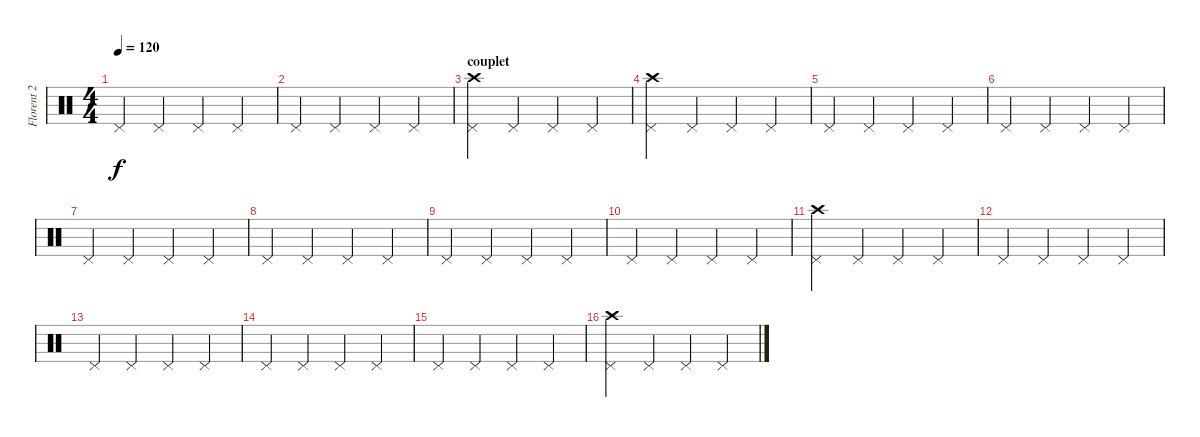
\track ("Florent 2" "Florent 2") {instrument percussion}
\staff {score}
\articulation defaults
\ts (4 4)
\tempo 120
\clef neutral
\ks c "Pedal Hi-Hat (hit)".4{dy f} "Pedal Hi-Hat (hit)".4 "Pedal Hi-Hat (hit)".4 "Pedal Hi-Hat (hit)".4
|
"Pedal Hi-Hat (hit)".4 "Pedal Hi-Hat (hit)".4 "Pedal Hi-Hat (hit)".4 "Pedal Hi-Hat (hit)".4 |
\section ("" "couplet")
("Pedal Hi-Hat (hit)" "Crash high (hit)").4 "Pedal Hi-Hat (hit)".4 "Pedal Hi-Hat (hit)".4 "Pedal Hi-Hat (hit)".4 |
("Pedal Hi-Hat (hit)" "Crash high (hit)").4 "Pedal Hi-Hat (hit)".4 "Pedal Hi-Hat (hit)".4 "Pedal Hi-Hat (hit)".4 |
"Pedal Hi-Hat (hit)".4 "Pedal Hi-Hat (hit)".4 "Pedal Hi-Hat (hit)".4 "Pedal Hi-Hat (hit)".4 |
"Pedal Hi-Hat (hit)".4 "Pedal Hi-Hat (hit)".4 "Pedal Hi-Hat (hit)".4 "Pedal Hi-Hat (hit)".4 |
"Pedal Hi-Hat (hit)".4 "Pedal Hi-Hat (hit)".4 "Pedal Hi-Hat (hit)".4 "Pedal Hi-Hat (hit)".4 |
"Pedal Hi-Hat (hit)".4 "Pedal Hi-Hat (hit)".4 "Pedal Hi-Hat (hit)".4 "Pedal Hi-Hat (hit)".4 |
"Pedal Hi-Hat (hit)".4 "Pedal Hi-Hat (hit)".4 "Pedal Hi-Hat (hit)".4 "Pedal Hi-Hat (hit)".4 |
"Pedal Hi-Hat (hit)".4 "Pedal Hi-Hat (hit)".4 "Pedal Hi-Hat (hit)".4 "Pedal Hi-Hat (hit)".4 |
\section ("" "")
("Pedal Hi-Hat (hit)" "Crash high (hit)").4 "Pedal Hi-Hat (hit)".4 "Pedal Hi-Hat (hit)".4 "Pedal Hi-Hat (hit)".4 |
"Pedal Hi-Hat (hit)".4 "Pedal Hi-Hat (hit)".4 "Pedal Hi-Hat (hit)".4 "Pedal Hi-Hat (hit)".4 |
"Pedal Hi-Hat (hit)".4 "Pedal Hi-Hat (hit)".4 "Pedal Hi-Hat (hit)".4 "Pedal Hi-Hat (hit)".4 |
"Pedal Hi-Hat (hit)".4 "Pedal Hi-Hat (hit)".4 "Pedal Hi-Hat (hit)".4 "Pedal Hi-Hat (hit)".4 |
"Pedal Hi-Hat (hit)".4 "Pedal Hi-Hat (hit)".4 "Pedal Hi-Hat (hit)".4 "Pedal Hi-Hat (hit)".4 |
("Pedal Hi-Hat (hit)" "Crash high (hit)").4 "Pedal Hi-Hat (hit)".4 "Pedal Hi-Hat (hit)".4 "Pedal Hi-Hat (hit)".4
